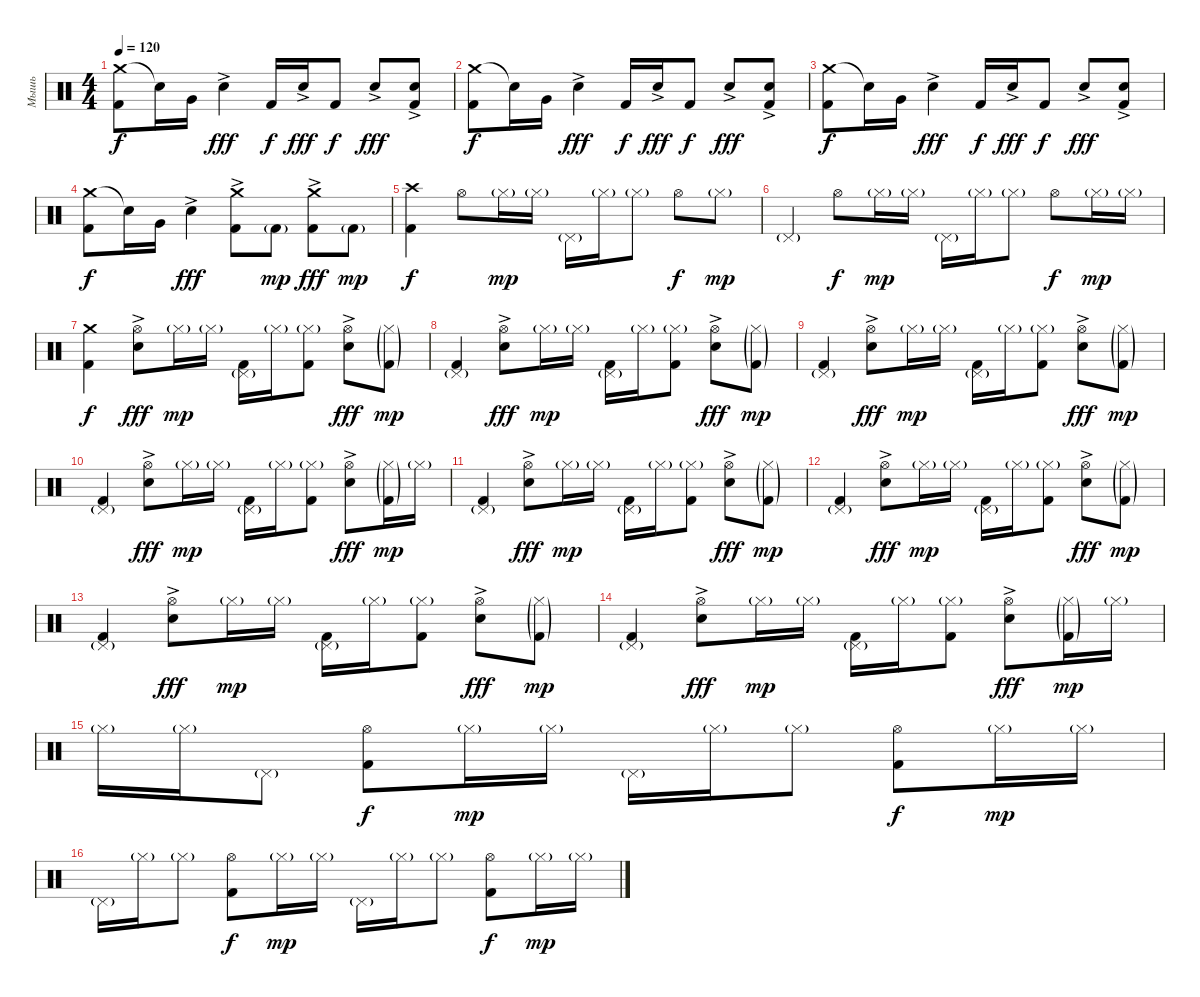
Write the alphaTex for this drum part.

\track ("Мышь" "Мышь") {instrument percussion}
\staff {score}
\articulation defaults
\ts (4 4)
\tempo 120
\clef neutral
\ks c
("Crash medium (hit)" "Kick (hit) 2").8{dy f} "Snare (hit)"{t}.16 "Very Low Tom (hit)".16 "Electric Snare (hit)"{ac}.4{dy fff} "Kick (hit) 2".16{dy f} "Electric Snare (hit)"{ac}.16{dy fff} "Kick (hit) 2".8{dy f} "Electric Snare (hit)"{ac}.8{dy fff} ("Electric Snare (hit)"{ac} "Kick (hit) 2").8 |
("Crash medium (hit)" "Kick (hit) 2").8{dy f} "Snare (hit)"{t}.16 "Very Low Tom (hit)".16 "Electric Snare (hit)"{ac}.4{dy fff} "Kick (hit) 2".16{dy f} "Electric Snare (hit)"{ac}.16{dy fff} "Kick (hit) 2".8{dy f} "Electric Snare (hit)"{ac}.8{dy fff} ("Electric Snare (hit)"{ac} "Kick (hit) 2").8 |
("Crash medium (hit)" "Kick (hit) 2").8{dy f} "Snare (hit)"{t}.16 "Very Low Tom (hit)".16 "Electric Snare (hit)"{ac}.4{dy fff} "Kick (hit) 2".16{dy f} "Electric Snare (hit)"{ac}.16{dy fff} "Kick (hit) 2".8{dy f} "Electric Snare (hit)"{ac}.8{dy fff} ("Electric Snare (hit)"{ac} "Kick (hit) 2").8 |
("Crash medium (hit)" "Kick (hit) 2").8{dy f} "Snare (hit)"{t}.16 "Very Low Tom (hit)".16 "Electric Snare (hit)"{ac}.4{dy fff} ("Crash medium (hit)" "Kick (hit) 2"{ac}).8 "Kick (hit) 2"{g}.8{dy mp} ("Crash medium (hit)" "Kick (hit) 2"{ac}).8{dy fff} "Kick (hit) 2"{g}.8{dy mp} |
("Crash high (hit)" "Kick (hit) 2").4{dy f} "Hi-Hat (open)".8 "Hi-Hat (closed)"{g}.16{dy mp} "Hi-Hat (closed)"{g}.16 "Pedal Hi-Hat (hit)"{g}.16 "Hi-Hat (closed)"{g}.16 "Hi-Hat (closed)"{g}.8 "Hi-Hat (open)".8{dy f} "Hi-Hat (closed)"{g}.8{dy mp} |
"Pedal Hi-Hat (hit)"{g}.4 "Hi-Hat (open)".8{dy f} "Hi-Hat (closed)"{g}.16{dy mp} "Hi-Hat (closed)"{g}.16 "Pedal Hi-Hat (hit)"{g}.16 "Hi-Hat (closed)"{g}.16 "Hi-Hat (closed)"{g}.8 "Hi-Hat (open)".8{dy f} "Hi-Hat (closed)"{g}.16{dy mp} "Hi-Hat (closed)"{g}.16 |
("Crash medium (hit)" "Kick (hit) 2").4{dy f} ("Hi-Hat (open)" "Electric Snare (hit)"{ac}).8{dy fff} "Hi-Hat (closed)"{g}.16{dy mp} "Hi-Hat (closed)"{g}.16 ("Pedal Hi-Hat (hit)"{g} "Kick (hit) 2").16 "Hi-Hat (closed)"{g}.16 ("Hi-Hat (closed)"{g} "Kick (hit) 2").8 ("Hi-Hat (open)" "Electric Snare (hit)"{ac}).8{dy fff} ("Hi-Hat (closed)"{g} "Kick (hit) 2"{g}).8{dy mp} |
("Pedal Hi-Hat (hit)"{g} "Kick (hit) 2").4 ("Hi-Hat (open)" "Electric Snare (hit)"{ac}).8{dy fff} "Hi-Hat (closed)"{g}.16{dy mp} "Hi-Hat (closed)"{g}.16 ("Pedal Hi-Hat (hit)"{g} "Kick (hit) 2").16 "Hi-Hat (closed)"{g}.16 ("Hi-Hat (closed)"{g} "Kick (hit) 2").8 ("Hi-Hat (open)" "Electric Snare (hit)"{ac}).8{dy fff} ("Hi-Hat (closed)"{g} "Kick (hit) 2"{g}).8{dy mp} |
("Pedal Hi-Hat (hit)"{g} "Kick (hit) 2").4 ("Hi-Hat (open)" "Electric Snare (hit)"{ac}).8{dy fff} "Hi-Hat (closed)"{g}.16{dy mp} "Hi-Hat (closed)"{g}.16 ("Pedal Hi-Hat (hit)"{g} "Kick (hit) 2").16 "Hi-Hat (closed)"{g}.16 ("Hi-Hat (closed)"{g} "Kick (hit) 2").8 ("Hi-Hat (open)" "Electric Snare (hit)"{ac}).8{dy fff} ("Hi-Hat (closed)"{g} "Kick (hit) 2"{g}).8{dy mp} |
("Pedal Hi-Hat (hit)"{g} "Kick (hit) 2").4 ("Hi-Hat (open)" "Electric Snare (hit)"{ac}).8{dy fff} "Hi-Hat (closed)"{g}.16{dy mp} "Hi-Hat (closed)"{g}.16 ("Pedal Hi-Hat (hit)"{g} "Kick (hit) 2").16 "Hi-Hat (closed)"{g}.16 ("Hi-Hat (closed)"{g} "Kick (hit) 2").8 ("Hi-Hat (open)" "Electric Snare (hit)"{ac}).8{dy fff} ("Hi-Hat (closed)"{g} "Kick (hit) 2"{g}).16{dy mp} "Hi-Hat (closed)"{g}.16 |
("Pedal Hi-Hat (hit)"{g} "Kick (hit) 2").4 ("Hi-Hat (open)" "Electric Snare (hit)"{ac}).8{dy fff} "Hi-Hat (closed)"{g}.16{dy mp} "Hi-Hat (closed)"{g}.16 ("Pedal Hi-Hat (hit)"{g} "Kick (hit) 2").16 "Hi-Hat (closed)"{g}.16 ("Hi-Hat (closed)"{g} "Kick (hit) 2").8 ("Hi-Hat (open)" "Electric Snare (hit)"{ac}).8{dy fff} ("Hi-Hat (closed)"{g} "Kick (hit) 2"{g}).8{dy mp} |
("Pedal Hi-Hat (hit)"{g} "Kick (hit) 2").4 ("Hi-Hat (open)" "Electric Snare (hit)"{ac}).8{dy fff} "Hi-Hat (closed)"{g}.16{dy mp} "Hi-Hat (closed)"{g}.16 ("Pedal Hi-Hat (hit)"{g} "Kick (hit) 2").16 "Hi-Hat (closed)"{g}.16 ("Hi-Hat (closed)"{g} "Kick (hit) 2").8 ("Hi-Hat (open)" "Electric Snare (hit)"{ac}).8{dy fff} ("Hi-Hat (closed)"{g} "Kick (hit) 2"{g}).8{dy mp} |
("Pedal Hi-Hat (hit)"{g} "Kick (hit) 2").4 ("Hi-Hat (open)" "Electric Snare (hit)"{ac}).8{dy fff} "Hi-Hat (closed)"{g}.16{dy mp} "Hi-Hat (closed)"{g}.16 ("Pedal Hi-Hat (hit)"{g} "Kick (hit) 2").16 "Hi-Hat (closed)"{g}.16 ("Hi-Hat (closed)"{g} "Kick (hit) 2").8 ("Hi-Hat (open)" "Electric Snare (hit)"{ac}).8{dy fff} ("Hi-Hat (closed)"{g} "Kick (hit) 2"{g}).8{dy mp} |
("Pedal Hi-Hat (hit)"{g} "Kick (hit) 2").4 ("Hi-Hat (open)" "Electric Snare (hit)"{ac}).8{dy fff} "Hi-Hat (closed)"{g}.16{dy mp} "Hi-Hat (closed)"{g}.16 ("Pedal Hi-Hat (hit)"{g} "Kick (hit) 2").16 "Hi-Hat (closed)"{g}.16 ("Hi-Hat (closed)"{g} "Kick (hit) 2").8 ("Hi-Hat (open)" "Electric Snare (hit)"{ac}).8{dy fff} ("Hi-Hat (closed)"{g} "Kick (hit) 2"{g}).16{dy mp} "Hi-Hat (closed)"{g}.16 |
"Hi-Hat (closed)"{g}.16 "Hi-Hat (closed)"{g}.16 "Pedal Hi-Hat (hit)"{g}.8 ("Hi-Hat (open)" "Kick (hit) 2").8{dy f} "Hi-Hat (closed)"{g}.16{dy mp} "Hi-Hat (closed)"{g}.16 "Pedal Hi-Hat (hit)"{g}.16 "Hi-Hat (closed)"{g}.16 "Hi-Hat (closed)"{g}.8 ("Hi-Hat (open)" "Kick (hit) 2").8{dy f} "Hi-Hat (closed)"{g}.16{dy mp} "Hi-Hat (closed)"{g}.16 |
"Pedal Hi-Hat (hit)"{g}.16 "Hi-Hat (closed)"{g}.16 "Hi-Hat (closed)"{g}.8 ("Hi-Hat (open)" "Kick (hit) 2").8{dy f} "Hi-Hat (closed)"{g}.16{dy mp} "Hi-Hat (closed)"{g}.16 "Pedal Hi-Hat (hit)"{g}.16 "Hi-Hat (closed)"{g}.16 "Hi-Hat (closed)"{g}.8 ("Hi-Hat (open)" "Kick (hit) 2").8{dy f} "Hi-Hat (closed)"{g}.16{dy mp} "Hi-Hat (closed)"{g}.16
